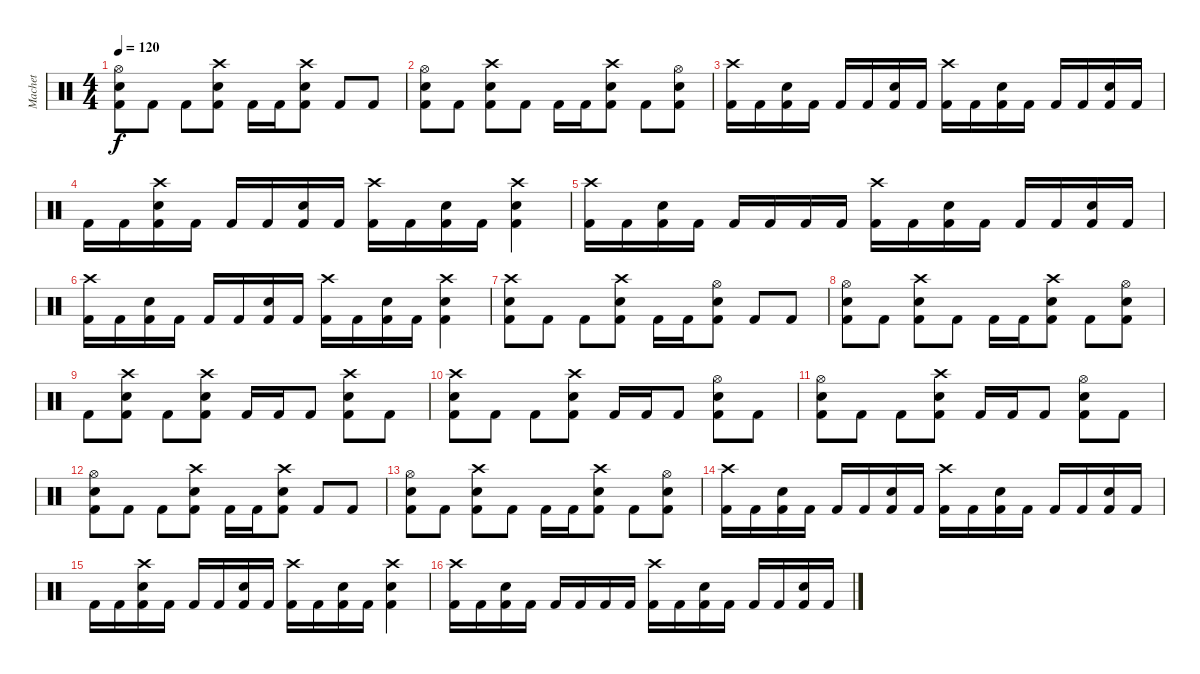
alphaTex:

\track ("Machet" "Machet") {instrument percussion}
\staff {score}
\articulation defaults
\ts (4 4)
\tempo 120
\clef neutral
\ks c
("Hi-Hat (open)" "Snare (hit) 2" "Kick (hit) 2").8{dy f} "Kick (hit) 2".8 "Kick (hit) 2".8 ("Crash high (hit)" "Snare (hit) 2" "Kick (hit) 2").8 "Kick (hit) 2".16 "Kick (hit) 2".16 ("Crash high (hit)" "Snare (hit) 2" "Kick (hit) 2").8 "Kick (hit) 2".8 "Kick (hit) 2".8 |
("Hi-Hat (open)" "Snare (hit) 2" "Kick (hit) 2").8 "Kick (hit) 2".8 ("Crash high (hit)" "Snare (hit) 2" "Kick (hit) 2").8 "Kick (hit) 2".8 "Kick (hit) 2".16 "Kick (hit) 2".16 ("Crash high (hit)" "Snare (hit) 2" "Kick (hit) 2").8 "Kick (hit) 2".8 ("Hi-Hat (open)" "Snare (hit) 2" "Kick (hit) 2").8 |
("Crash high (hit)" "Kick (hit) 2").16 "Kick (hit) 2".16 ("Snare (hit) 2" "Kick (hit) 2").16 "Kick (hit) 2".16 "Kick (hit) 2".16 "Kick (hit) 2".16 ("Snare (hit) 2" "Kick (hit) 2").16 "Kick (hit) 2".16 ("Crash high (hit)" "Kick (hit) 2").16 "Kick (hit) 2".16 ("Snare (hit) 2" "Kick (hit) 2").16 "Kick (hit) 2".16 "Kick (hit) 2".16 "Kick (hit) 2".16 ("Snare (hit) 2" "Kick (hit) 2").16 "Kick (hit) 2".16 |
"Kick (hit) 2".16 "Kick (hit) 2".16 ("Crash high (hit)" "Snare (hit) 2" "Kick (hit) 2").16 "Kick (hit) 2".16 "Kick (hit) 2".16 "Kick (hit) 2".16 ("Snare (hit) 2" "Kick (hit) 2").16 "Kick (hit) 2".16 ("Crash high (hit)" "Kick (hit) 2").16 "Kick (hit) 2".16 ("Snare (hit) 2" "Kick (hit) 2").16 "Kick (hit) 2".16 ("Crash high (hit)" "Snare (hit) 2" "Kick (hit) 2").4 |
("Crash high (hit)" "Kick (hit) 2").16 "Kick (hit) 2".16 ("Snare (hit) 2" "Kick (hit) 2").16 "Kick (hit) 2".16 "Kick (hit) 2".16 "Kick (hit) 2".16 "Kick (hit) 2".16 "Kick (hit) 2".16 ("Crash high (hit)" "Kick (hit) 2").16 "Kick (hit) 2".16 ("Snare (hit) 2" "Kick (hit) 2").16 "Kick (hit) 2".16 "Kick (hit) 2".16 "Kick (hit) 2".16 ("Snare (hit) 2" "Kick (hit) 2").16 "Kick (hit) 2".16 |
("Crash high (hit)" "Kick (hit) 2").16 "Kick (hit) 2".16 ("Snare (hit) 2" "Kick (hit) 2").16 "Kick (hit) 2".16 "Kick (hit) 2".16 "Kick (hit) 2".16 ("Snare (hit) 2" "Kick (hit) 2").16 "Kick (hit) 2".16 ("Crash high (hit)" "Kick (hit) 2").16 "Kick (hit) 2".16 ("Snare (hit) 2" "Kick (hit) 2").16 "Kick (hit) 2".16 ("Crash high (hit)" "Snare (hit) 2" "Kick (hit) 2").4 |
("Crash high (hit)" "Snare (hit) 2" "Kick (hit) 2").8 "Kick (hit) 2".8 "Kick (hit) 2".8 ("Crash high (hit)" "Snare (hit) 2" "Kick (hit) 2").8 "Kick (hit) 2".16 "Kick (hit) 2".16 ("Hi-Hat (open)" "Snare (hit) 2" "Kick (hit) 2").8 "Kick (hit) 2".8 "Kick (hit) 2".8 |
("Hi-Hat (open)" "Snare (hit) 2" "Kick (hit) 2").8 "Kick (hit) 2".8 ("Crash high (hit)" "Snare (hit) 2" "Kick (hit) 2").8 "Kick (hit) 2".8 "Kick (hit) 2".16 "Kick (hit) 2".16 ("Crash high (hit)" "Snare (hit) 2" "Kick (hit) 2").8 "Kick (hit) 2".8 ("Hi-Hat (open)" "Snare (hit) 2" "Kick (hit) 2").8 |
"Kick (hit) 2".8 ("Crash high (hit)" "Snare (hit) 2" "Kick (hit) 2").8 "Kick (hit) 2".8 ("Crash high (hit)" "Snare (hit) 2" "Kick (hit) 2").8 "Kick (hit) 2".16 "Kick (hit) 2".16 "Kick (hit) 2".8 ("Crash high (hit)" "Snare (hit) 2" "Kick (hit) 2").8 "Kick (hit) 2".8 |
("Crash high (hit)" "Snare (hit) 2" "Kick (hit) 2").8 "Kick (hit) 2".8 "Kick (hit) 2".8 ("Crash high (hit)" "Snare (hit) 2" "Kick (hit) 2").8 "Kick (hit) 2".16 "Kick (hit) 2".16 "Kick (hit) 2".8 ("Hi-Hat (open)" "Snare (hit) 2" "Kick (hit) 2").8 "Kick (hit) 2".8 |
("Hi-Hat (open)" "Snare (hit) 2" "Kick (hit) 2").8 "Kick (hit) 2".8 "Kick (hit) 2".8 ("Crash high (hit)" "Snare (hit) 2" "Kick (hit) 2").8 "Kick (hit) 2".16 "Kick (hit) 2".16 "Kick (hit) 2".8 ("Hi-Hat (open)" "Snare (hit) 2" "Kick (hit) 2").8 "Kick (hit) 2".8 |
("Hi-Hat (open)" "Snare (hit) 2" "Kick (hit) 2").8 "Kick (hit) 2".8 "Kick (hit) 2".8 ("Crash high (hit)" "Snare (hit) 2" "Kick (hit) 2").8 "Kick (hit) 2".16 "Kick (hit) 2".16 ("Crash high (hit)" "Snare (hit) 2" "Kick (hit) 2").8 "Kick (hit) 2".8 "Kick (hit) 2".8 |
("Hi-Hat (open)" "Snare (hit) 2" "Kick (hit) 2").8 "Kick (hit) 2".8 ("Crash high (hit)" "Snare (hit) 2" "Kick (hit) 2").8 "Kick (hit) 2".8 "Kick (hit) 2".16 "Kick (hit) 2".16 ("Crash high (hit)" "Snare (hit) 2" "Kick (hit) 2").8 "Kick (hit) 2".8 ("Hi-Hat (open)" "Snare (hit) 2" "Kick (hit) 2").8 |
("Crash high (hit)" "Kick (hit) 2").16 "Kick (hit) 2".16 ("Snare (hit) 2" "Kick (hit) 2").16 "Kick (hit) 2".16 "Kick (hit) 2".16 "Kick (hit) 2".16 ("Snare (hit) 2" "Kick (hit) 2").16 "Kick (hit) 2".16 ("Crash high (hit)" "Kick (hit) 2").16 "Kick (hit) 2".16 ("Snare (hit) 2" "Kick (hit) 2").16 "Kick (hit) 2".16 "Kick (hit) 2".16 "Kick (hit) 2".16 ("Snare (hit) 2" "Kick (hit) 2").16 "Kick (hit) 2".16 |
"Kick (hit) 2".16 "Kick (hit) 2".16 ("Crash high (hit)" "Snare (hit) 2" "Kick (hit) 2").16 "Kick (hit) 2".16 "Kick (hit) 2".16 "Kick (hit) 2".16 ("Snare (hit) 2" "Kick (hit) 2").16 "Kick (hit) 2".16 ("Crash high (hit)" "Kick (hit) 2").16 "Kick (hit) 2".16 ("Snare (hit) 2" "Kick (hit) 2").16 "Kick (hit) 2".16 ("Crash high (hit)" "Snare (hit) 2" "Kick (hit) 2").4 |
("Crash high (hit)" "Kick (hit) 2").16 "Kick (hit) 2".16 ("Snare (hit) 2" "Kick (hit) 2").16 "Kick (hit) 2".16 "Kick (hit) 2".16 "Kick (hit) 2".16 "Kick (hit) 2".16 "Kick (hit) 2".16 ("Crash high (hit)" "Kick (hit) 2").16 "Kick (hit) 2".16 ("Snare (hit) 2" "Kick (hit) 2").16 "Kick (hit) 2".16 "Kick (hit) 2".16 "Kick (hit) 2".16 ("Snare (hit) 2" "Kick (hit) 2").16 "Kick (hit) 2".16
